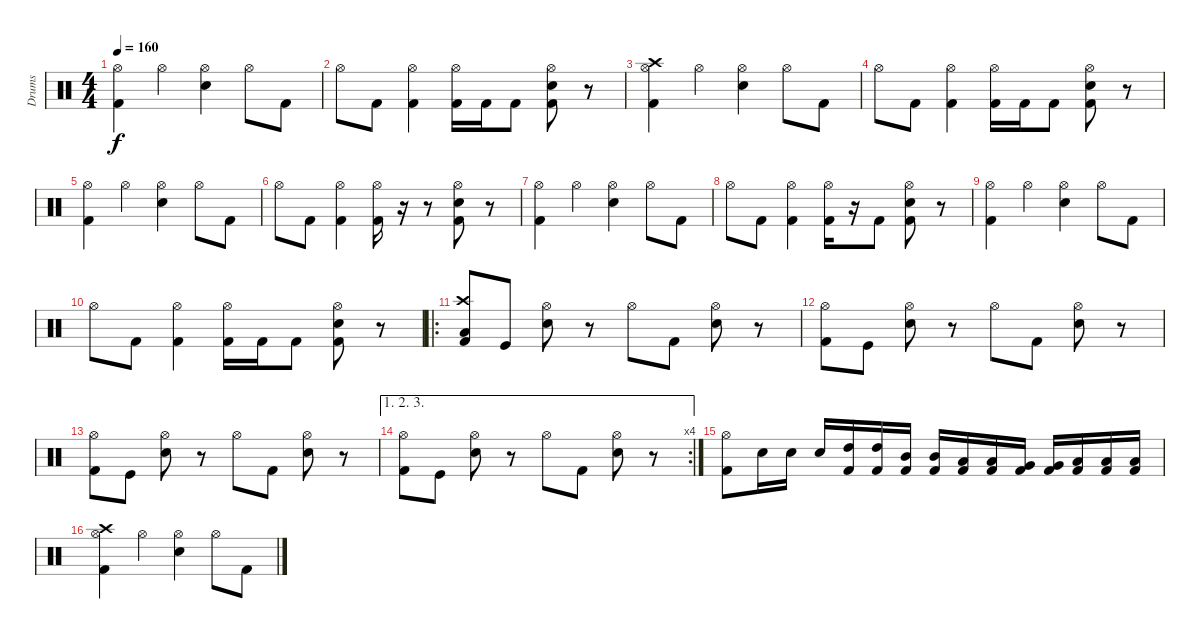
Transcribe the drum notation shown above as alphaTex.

\track ("Drums" "Drums") {instrument percussion}
\staff {score}
\articulation defaults
\ts (4 4)
\tempo 160
\clef neutral
\ks c
("Hi-Hat (open)" "Kick (hit) 2").4{dy f} "Hi-Hat (open)".4 ("Hi-Hat (open)" "Electric Snare (hit)").4 "Hi-Hat (open)".8 "Kick (hit) 2".8 |
"Hi-Hat (open)".8 "Kick (hit) 2".8 ("Hi-Hat (open)" "Kick (hit) 2").4 ("Hi-Hat (open)" "Kick (hit) 2").16 "Kick (hit) 2".16 "Kick (hit) 2".8 ("Hi-Hat (open)" "Kick (hit) 2" "Electric Snare (hit)").8 r.8 |
("Crash high (hit)" "Hi-Hat (open)" "Kick (hit) 2").4 "Hi-Hat (open)".4 ("Hi-Hat (open)" "Electric Snare (hit)").4 "Hi-Hat (open)".8 "Kick (hit) 2".8 |
"Hi-Hat (open)".8 "Kick (hit) 2".8 ("Hi-Hat (open)" "Kick (hit) 2").4 ("Hi-Hat (open)" "Kick (hit) 2").16 "Kick (hit) 2".16 "Kick (hit) 2".8 ("Hi-Hat (open)" "Kick (hit) 2" "Electric Snare (hit)").8 r.8 |
("Hi-Hat (open)" "Kick (hit) 2").4 "Hi-Hat (open)".4 ("Hi-Hat (open)" "Electric Snare (hit)").4 "Hi-Hat (open)".8 "Kick (hit) 2".8 |
"Hi-Hat (open)".8 "Kick (hit) 2".8 ("Hi-Hat (open)" "Kick (hit) 2").4 ("Hi-Hat (open)" "Kick (hit) 2").16 r.16 r.8 ("Hi-Hat (open)" "Kick (hit) 2" "Electric Snare (hit)").8 r.8 |
("Hi-Hat (open)" "Kick (hit) 2").4 "Hi-Hat (open)".4 ("Hi-Hat (open)" "Electric Snare (hit)").4 "Hi-Hat (open)".8 "Kick (hit) 2".8 |
"Hi-Hat (open)".8 "Kick (hit) 2".8 ("Hi-Hat (open)" "Kick (hit) 2").4 ("Hi-Hat (open)" "Kick (hit) 2").16 r.16 "Kick (hit) 2".8 ("Hi-Hat (open)" "Kick (hit) 2" "Electric Snare (hit)").8 r.8 |
("Hi-Hat (open)" "Kick (hit) 2").4 "Hi-Hat (open)".4 ("Hi-Hat (open)" "Electric Snare (hit)").4 "Hi-Hat (open)".8 "Kick (hit) 2".8 |
"Hi-Hat (open)".8 "Kick (hit) 2".8 ("Hi-Hat (open)" "Kick (hit) 2").4 ("Hi-Hat (open)" "Kick (hit) 2").16 "Kick (hit) 2".16 "Kick (hit) 2".8 ("Hi-Hat (open)" "Kick (hit) 2" "Electric Snare (hit)").8 r.8 |
\ro
("Crash high (hit)" "Low Floor Tom (hit)" "Kick (hit) 2").8 "Kick (hit)".8 ("Hi-Hat (open)" "Electric Snare (hit)").8 r.8 "Hi-Hat (open)".8 "Kick (hit) 2".8 ("Hi-Hat (open)" "Electric Snare (hit)").8 r.8 |
("Hi-Hat (open)" "Kick (hit) 2").8 "Kick (hit)".8 ("Hi-Hat (open)" "Electric Snare (hit)").8 r.8 "Hi-Hat (open)".8 "Kick (hit) 2".8 ("Hi-Hat (open)" "Electric Snare (hit)").8 r.8 |
("Hi-Hat (open)" "Kick (hit) 2").8 "Kick (hit)".8 ("Hi-Hat (open)" "Electric Snare (hit)").8 r.8 "Hi-Hat (open)".8 "Kick (hit) 2".8 ("Hi-Hat (open)" "Electric Snare (hit)").8 r.8 |
\ae (1 2 3)
\rc 4
("Hi-Hat (open)" "Kick (hit) 2").8 "Kick (hit)".8 ("Hi-Hat (open)" "Electric Snare (hit)").8 r.8 "Hi-Hat (open)".8 "Kick (hit) 2".8 ("Hi-Hat (open)" "Electric Snare (hit)").8 r.8 |
("Hi-Hat (open)" "Kick (hit) 2").8 "Electric Snare (hit)".16 "Electric Snare (hit)".16 "Electric Snare (hit)".16 ("High Tom (hit)" "Kick (hit) 2").16 ("High Tom (hit)" "Kick (hit) 2").16 ("Mid Tom (hit)" "Kick (hit) 2").16 ("Mid Tom (hit)" "Kick (hit) 2").16 ("Low Tom (hit)" "Kick (hit) 2").16 ("Low Tom (hit)" "Kick (hit) 2").16 ("Very Low Tom (hit)" "Kick (hit) 2").16 ("Very Low Tom (hit)" "Kick (hit) 2").16 ("Low Floor Tom (hit)" "Kick (hit) 2").16 ("Low Floor Tom (hit)" "Kick (hit) 2").16 ("Low Floor Tom (hit)" "Kick (hit) 2").16 |
("Crash high (hit)" "Hi-Hat (open)" "Kick (hit) 2").4 "Hi-Hat (open)".4 ("Hi-Hat (open)" "Electric Snare (hit)").4 "Hi-Hat (open)".8 "Kick (hit) 2".8
